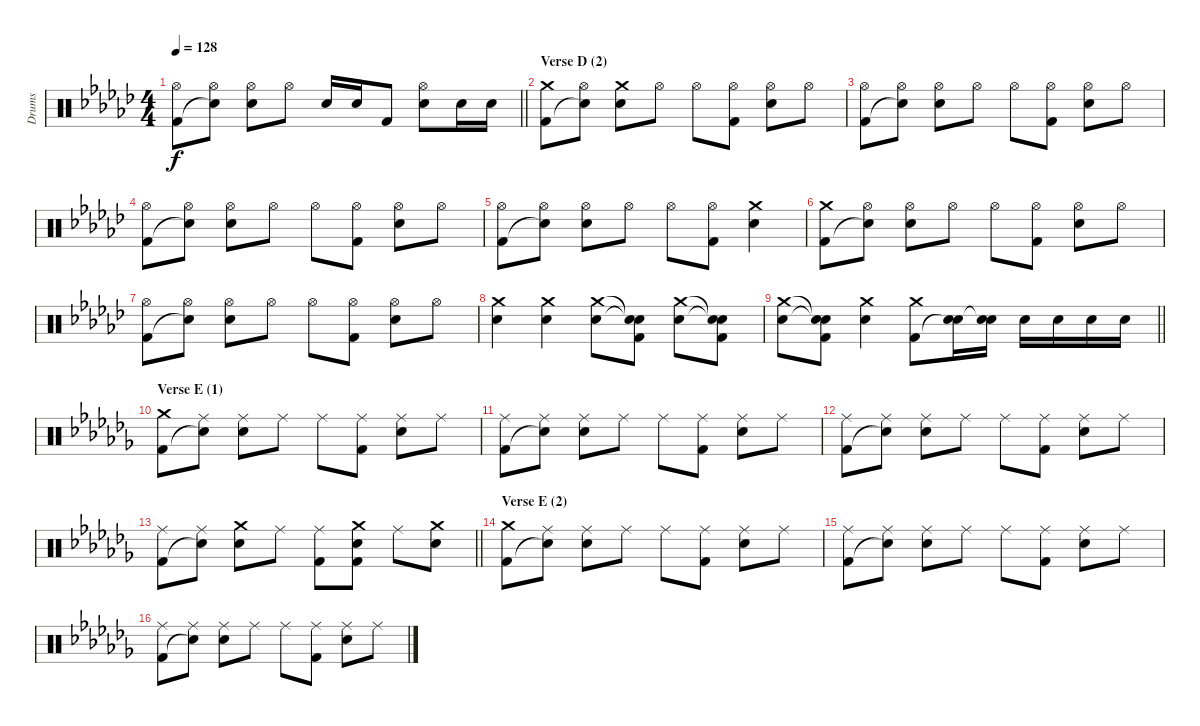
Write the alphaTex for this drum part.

\track ("Drums" "Drums") {instrument percussion}
\staff {score}
\articulation defaults
\ts (4 4)
\tempo 128
\clef neutral
\barLineRight lightlight
\ks gb
("Hi-Hat (open)" "Kick (hit) 2").8{dy f} ("Hi-Hat (open)" "Snare (hit)"{t}).8 ("Hi-Hat (open)" "Electric Snare (hit)").8 "Hi-Hat (open)".8 "Electric Snare (hit)".16 "Electric Snare (hit)".16 "Kick (hit) 2".8 ("Hi-Hat (open)" "Electric Snare (hit)").8 "Electric Snare (hit)".16 "Electric Snare (hit)".16 |
\section ("" "Verse D (2)")
("Crash medium (hit)" "Kick (hit) 2").8 ("Hi-Hat (open)" "Snare (hit)"{t}).8 ("Crash medium (hit)" "Electric Snare (hit)").8 "Hi-Hat (open)".8 "Hi-Hat (open)".8 ("Hi-Hat (open)" "Kick (hit) 2").8 ("Hi-Hat (open)" "Electric Snare (hit)").8 "Hi-Hat (open)".8 |
("Hi-Hat (open)" "Kick (hit) 2").8 ("Hi-Hat (open)" "Snare (hit)"{t}).8 ("Hi-Hat (open)" "Electric Snare (hit)").8 "Hi-Hat (open)".8 "Hi-Hat (open)".8 ("Hi-Hat (open)" "Kick (hit) 2").8 ("Hi-Hat (open)" "Electric Snare (hit)").8 "Hi-Hat (open)".8 |
("Hi-Hat (open)" "Kick (hit) 2").8 ("Hi-Hat (open)" "Snare (hit)"{t}).8 ("Hi-Hat (open)" "Electric Snare (hit)").8 "Hi-Hat (open)".8 "Hi-Hat (open)".8 ("Hi-Hat (open)" "Kick (hit) 2").8 ("Hi-Hat (open)" "Electric Snare (hit)").8 "Hi-Hat (open)".8 |
("Hi-Hat (open)" "Kick (hit) 2").8 ("Hi-Hat (open)" "Snare (hit)"{t}).8 ("Hi-Hat (open)" "Electric Snare (hit)").8 "Hi-Hat (open)".8 "Hi-Hat (open)".8 ("Hi-Hat (open)" "Kick (hit) 2").8 ("Crash medium (hit)" "Electric Snare (hit)").4 |
("Crash medium (hit)" "Kick (hit) 2").8 ("Hi-Hat (open)" "Snare (hit)"{t}).8 ("Hi-Hat (open)" "Electric Snare (hit)").8 "Hi-Hat (open)".8 "Hi-Hat (open)".8 ("Hi-Hat (open)" "Kick (hit) 2").8 ("Hi-Hat (open)" "Electric Snare (hit)").8 "Hi-Hat (open)".8 |
("Hi-Hat (open)" "Kick (hit) 2").8 ("Hi-Hat (open)" "Snare (hit)"{t}).8 ("Hi-Hat (open)" "Electric Snare (hit)").8 "Hi-Hat (open)".8 "Hi-Hat (open)".8 ("Hi-Hat (open)" "Kick (hit) 2").8 ("Hi-Hat (open)" "Electric Snare (hit)").8 "Hi-Hat (open)".8 |
("Crash medium (hit)" "Electric Snare (hit)").4 ("Crash medium (hit)" "Electric Snare (hit)").4 ("Crash medium (hit)" "Electric Snare (hit)").8 ("Snare (hit)"{t} "Snare (hit)"{t} "Kick (hit) 2").8 ("Crash medium (hit)" "Electric Snare (hit)").8 ("Snare (hit)"{t} "Snare (hit)"{t} "Kick (hit) 2").8 |
\barLineRight lightlight
("Crash medium (hit)" "Electric Snare (hit)").8 ("Snare (hit)"{t} "Snare (hit)"{t} "Kick (hit) 2").8 ("Crash medium (hit)" "Electric Snare (hit)").4 ("Crash medium (hit)" "Kick (hit) 2").8 ("Electric Snare (hit)" "Snare (hit)"{t}).16 ("Electric Snare (hit)" "Snare (hit)"{t}).16 "Electric Snare (hit)".16 "Electric Snare (hit)".16 "Electric Snare (hit)".16 "Electric Snare (hit)".16 |
\section ("" "Verse E (1)")
\ks abminor
("Crash medium (hit)" "Kick (hit) 2").8 ("Ride (middle)" "Snare (hit)"{t}).8 ("Ride (middle)" "Electric Snare (hit)").8 "Ride (middle)".8 "Ride (middle)".8 ("Ride (middle)" "Kick (hit) 2").8 ("Ride (middle)" "Electric Snare (hit)").8 "Ride (middle)".8 |
("Ride (middle)" "Kick (hit) 2").8 ("Ride (middle)" "Snare (hit)"{t}).8 ("Ride (middle)" "Electric Snare (hit)").8 "Ride (middle)".8 "Ride (middle)".8 ("Ride (middle)" "Kick (hit) 2").8 ("Ride (middle)" "Electric Snare (hit)").8 "Ride (middle)".8 |
("Ride (middle)" "Kick (hit) 2").8 ("Ride (middle)" "Snare (hit)"{t}).8 ("Ride (middle)" "Electric Snare (hit)").8 "Ride (middle)".8 "Ride (middle)".8 ("Ride (middle)" "Kick (hit) 2").8 ("Ride (middle)" "Electric Snare (hit)").8 "Ride (middle)".8 |
\barLineRight lightlight
("Ride (middle)" "Kick (hit) 2").8 ("Ride (middle)" "Snare (hit)"{t}).8 ("Crash medium (hit)" "Electric Snare (hit)").8 "Ride (middle)".8 ("Ride (middle)" "Kick (hit) 2").8 ("Crash medium (hit)" "Electric Snare (hit)" "Kick (hit) 2").8 "Ride (middle)".8 ("Crash medium (hit)" "Electric Snare (hit)").8 |
\section ("" "Verse E (2)")
("Crash medium (hit)" "Kick (hit) 2").8 ("Ride (middle)" "Snare (hit)"{t}).8 ("Ride (middle)" "Electric Snare (hit)").8 "Ride (middle)".8 "Ride (middle)".8 ("Ride (middle)" "Kick (hit) 2").8 ("Ride (middle)" "Electric Snare (hit)").8 "Ride (middle)".8 |
("Ride (middle)" "Kick (hit) 2").8 ("Ride (middle)" "Snare (hit)"{t}).8 ("Ride (middle)" "Electric Snare (hit)").8 "Ride (middle)".8 "Ride (middle)".8 ("Ride (middle)" "Kick (hit) 2").8 ("Ride (middle)" "Electric Snare (hit)").8 "Ride (middle)".8 |
("Ride (middle)" "Kick (hit) 2").8 ("Ride (middle)" "Snare (hit)"{t}).8 ("Ride (middle)" "Electric Snare (hit)").8 "Ride (middle)".8 "Ride (middle)".8 ("Ride (middle)" "Kick (hit) 2").8 ("Ride (middle)" "Electric Snare (hit)").8 "Ride (middle)".8
